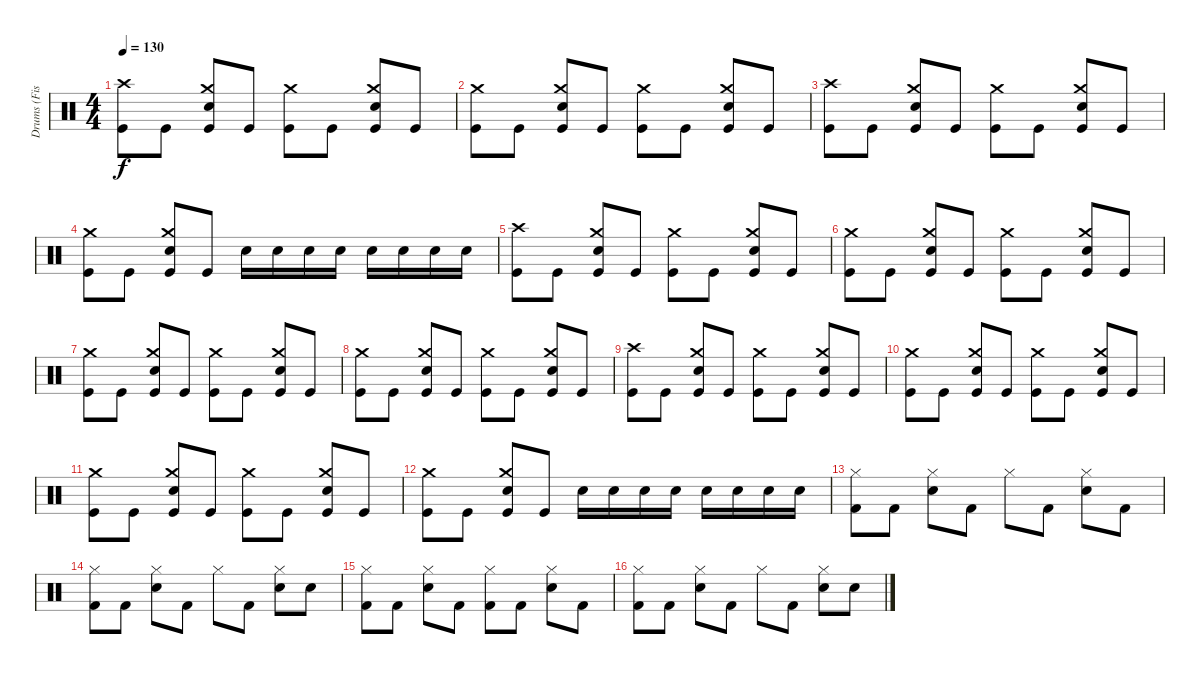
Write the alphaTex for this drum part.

\track ("Drums (Fish)" "Drums (Fis") {instrument percussion}
\staff {score}
\articulation defaults
\ts (4 4)
\tempo 130
\clef neutral
\ks c
("Crash high (hit)" "Kick (hit)").8{dy f} "Kick (hit)".8 ("Crash medium (hit)" "Electric Snare (hit)" "Kick (hit)").8 "Kick (hit)".8 ("Crash medium (hit)" "Kick (hit)").8 "Kick (hit)".8 ("Crash medium (hit)" "Electric Snare (hit)" "Kick (hit)").8 "Kick (hit)".8 |
("Crash medium (hit)" "Kick (hit)").8 "Kick (hit)".8 ("Crash medium (hit)" "Electric Snare (hit)" "Kick (hit)").8 "Kick (hit)".8 ("Crash medium (hit)" "Kick (hit)").8 "Kick (hit)".8 ("Crash medium (hit)" "Electric Snare (hit)" "Kick (hit)").8 "Kick (hit)".8 |
("Crash high (hit)" "Kick (hit)").8 "Kick (hit)".8 ("Crash medium (hit)" "Electric Snare (hit)" "Kick (hit)").8 "Kick (hit)".8 ("Crash medium (hit)" "Kick (hit)").8 "Kick (hit)".8 ("Crash medium (hit)" "Electric Snare (hit)" "Kick (hit)").8 "Kick (hit)".8 |
("Crash medium (hit)" "Kick (hit)").8 "Kick (hit)".8 ("Crash medium (hit)" "Electric Snare (hit)" "Kick (hit)").8 "Kick (hit)".8 "Snare (hit) 2".16 "Snare (hit) 2".16 "Snare (hit) 2".16 "Snare (hit) 2".16 "Snare (hit) 2".16 "Snare (hit) 2".16 "Snare (hit) 2".16 "Snare (hit) 2".16 |
("Crash high (hit)" "Kick (hit)").8 "Kick (hit)".8 ("Crash medium (hit)" "Electric Snare (hit)" "Kick (hit)").8 "Kick (hit)".8 ("Crash medium (hit)" "Kick (hit)").8 "Kick (hit)".8 ("Crash medium (hit)" "Electric Snare (hit)" "Kick (hit)").8 "Kick (hit)".8 |
("Crash medium (hit)" "Kick (hit)").8 "Kick (hit)".8 ("Crash medium (hit)" "Electric Snare (hit)" "Kick (hit)").8 "Kick (hit)".8 ("Crash medium (hit)" "Kick (hit)").8 "Kick (hit)".8 ("Crash medium (hit)" "Electric Snare (hit)" "Kick (hit)").8 "Kick (hit)".8 |
("Crash medium (hit)" "Kick (hit)").8 "Kick (hit)".8 ("Crash medium (hit)" "Electric Snare (hit)" "Kick (hit)").8 "Kick (hit)".8 ("Crash medium (hit)" "Kick (hit)").8 "Kick (hit)".8 ("Crash medium (hit)" "Electric Snare (hit)" "Kick (hit)").8 "Kick (hit)".8 |
("Crash medium (hit)" "Kick (hit)").8 "Kick (hit)".8 ("Crash medium (hit)" "Electric Snare (hit)" "Kick (hit)").8 "Kick (hit)".8 ("Crash medium (hit)" "Kick (hit)").8 "Kick (hit)".8 ("Crash medium (hit)" "Electric Snare (hit)" "Kick (hit)").8 "Kick (hit)".8 |
("Crash high (hit)" "Kick (hit)").8 "Kick (hit)".8 ("Crash medium (hit)" "Electric Snare (hit)" "Kick (hit)").8 "Kick (hit)".8 ("Crash medium (hit)" "Kick (hit)").8 "Kick (hit)".8 ("Crash medium (hit)" "Electric Snare (hit)" "Kick (hit)").8 "Kick (hit)".8 |
("Crash medium (hit)" "Kick (hit)").8 "Kick (hit)".8 ("Crash medium (hit)" "Electric Snare (hit)" "Kick (hit)").8 "Kick (hit)".8 ("Crash medium (hit)" "Kick (hit)").8 "Kick (hit)".8 ("Crash medium (hit)" "Electric Snare (hit)" "Kick (hit)").8 "Kick (hit)".8 |
("Crash medium (hit)" "Kick (hit)").8 "Kick (hit)".8 ("Crash medium (hit)" "Electric Snare (hit)" "Kick (hit)").8 "Kick (hit)".8 ("Crash medium (hit)" "Kick (hit)").8 "Kick (hit)".8 ("Crash medium (hit)" "Electric Snare (hit)" "Kick (hit)").8 "Kick (hit)".8 |
("Crash medium (hit)" "Kick (hit)").8 "Kick (hit)".8 ("Crash medium (hit)" "Electric Snare (hit)" "Kick (hit)").8 "Kick (hit)".8 "Snare (hit) 2".16 "Snare (hit) 2".16 "Snare (hit) 2".16 "Snare (hit) 2".16 "Snare (hit) 2".16 "Snare (hit) 2".16 "Snare (hit) 2".16 "Snare (hit) 2".16 |
("Hi-Hat (closed)" "Kick (hit) 2").8 "Kick (hit) 2".8 ("Hi-Hat (closed)" "Electric Snare (hit)").8 "Kick (hit) 2".8 "Hi-Hat (closed)".8 "Kick (hit) 2".8 ("Hi-Hat (closed)" "Electric Snare (hit)").8 "Kick (hit) 2".8 |
("Hi-Hat (closed)" "Kick (hit) 2").8 "Kick (hit) 2".8 ("Hi-Hat (closed)" "Electric Snare (hit)").8 "Kick (hit) 2".8 "Hi-Hat (closed)".8 "Kick (hit) 2".8 ("Hi-Hat (closed)" "Electric Snare (hit)").8 "Electric Snare (hit)".8 |
("Hi-Hat (closed)" "Kick (hit) 2").8 "Kick (hit) 2".8 ("Hi-Hat (closed)" "Electric Snare (hit)").8 "Kick (hit) 2".8 ("Hi-Hat (closed)" "Kick (hit) 2").8 "Kick (hit) 2".8 ("Hi-Hat (closed)" "Electric Snare (hit)").8 "Kick (hit) 2".8 |
("Hi-Hat (closed)" "Kick (hit) 2").8 "Kick (hit) 2".8 ("Hi-Hat (closed)" "Electric Snare (hit)").8 "Kick (hit) 2".8 "Hi-Hat (closed)".8 "Kick (hit) 2".8 ("Hi-Hat (closed)" "Electric Snare (hit)").8 "Electric Snare (hit)".8
